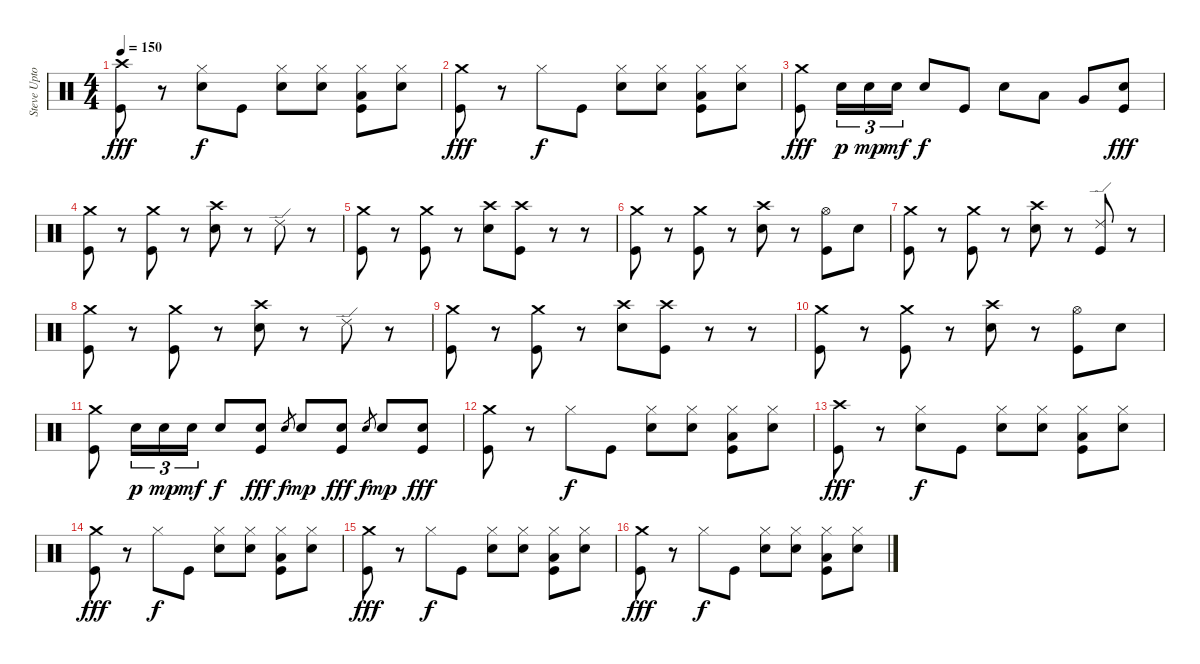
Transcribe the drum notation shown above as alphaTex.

\track ("Steve Upton (drums)" "Steve Upto") {instrument percussion}
\staff {score}
\articulation defaults
\ts (4 4)
\tempo 150
\clef neutral
\ks c
("Crash high (hit)" "Kick (hit)").8{dy fff} r.8 ("Hi-Hat (closed)" "Electric Snare (hit)").8{dy f} "Kick (hit)".8 ("Hi-Hat (closed)" "Electric Snare (hit)").8 ("Hi-Hat (closed)" "Electric Snare (hit)").8 ("Hi-Hat (closed)" "Low Tom (hit)" "Kick (hit)").8 ("Hi-Hat (closed)" "Electric Snare (hit)").8 |
("Crash medium (hit)" "Kick (hit)").8{dy fff} r.8 "Hi-Hat (closed)".8{dy f} "Kick (hit)".8 ("Hi-Hat (closed)" "Electric Snare (hit)").8 ("Hi-Hat (closed)" "Electric Snare (hit)").8 ("Hi-Hat (closed)" "Low Tom (hit)" "Kick (hit)").8 ("Hi-Hat (closed)" "Electric Snare (hit)").8 |
("Crash medium (hit)" "Kick (hit)").8{dy fff} "Electric Snare (hit)".16{tu (3 2) dy p} "Electric Snare (hit)".16{tu (3 2) dy mp} "Electric Snare (hit)".16{tu (3 2) dy mf} "Electric Snare (hit)".8{dy f} "Kick (hit)".8 "Electric Snare (hit)".8 "Low Tom (hit)".8 "Very Low Tom (hit)".8 ("Electric Snare (hit)" "Kick (hit)").8{dy fff} |
("Crash medium (hit)" "Kick (hit)").8 r.8 ("Crash medium (hit)" "Kick (hit)").8 r.8 ("Crash high (hit)" "Electric Snare (hit)").8 r.8 "Ride (edge) 2".8 r.8 |
("Crash medium (hit)" "Kick (hit)").8 r.8 ("Crash medium (hit)" "Kick (hit)").8 r.8 ("Crash high (hit)" "Electric Snare (hit)").8 ("Crash high (hit)" "Kick (hit)").8 r.8 r.8 |
("Crash medium (hit)" "Kick (hit)").8 r.8 ("Crash medium (hit)" "Kick (hit)").8 r.8 ("Crash high (hit)" "Electric Snare (hit)").8 r.8 ("Hi-Hat (open)" "Kick (hit)").8 "Electric Snare (hit)".8 |
("Crash medium (hit)" "Kick (hit)").8 r.8 ("Crash medium (hit)" "Kick (hit)").8 r.8 ("Crash high (hit)" "Electric Snare (hit)").8 r.8 ("Ride (edge) 2" "Kick (hit)").8 r.8 |
("Crash medium (hit)" "Kick (hit)").8 r.8 ("Crash medium (hit)" "Kick (hit)").8 r.8 ("Crash high (hit)" "Electric Snare (hit)").8 r.8 "Ride (edge) 2".8 r.8 |
("Crash medium (hit)" "Kick (hit)").8 r.8 ("Crash medium (hit)" "Kick (hit)").8 r.8 ("Crash high (hit)" "Electric Snare (hit)").8 ("Crash high (hit)" "Kick (hit)").8 r.8 r.8 |
("Crash medium (hit)" "Kick (hit)").8 r.8 ("Crash medium (hit)" "Kick (hit)").8 r.8 ("Crash high (hit)" "Electric Snare (hit)").8 r.8 ("Hi-Hat (open)" "Kick (hit)").8 "Electric Snare (hit)".8 |
("Crash medium (hit)" "Kick (hit)").8 "Electric Snare (hit)".16{tu (3 2) dy p} "Electric Snare (hit)".16{tu (3 2) dy mp} "Electric Snare (hit)".16{tu (3 2) dy mf} "Electric Snare (hit)".8{dy f} ("Electric Snare (hit)" "Kick (hit)").8{dy fff} "Electric Snare (hit)".8{gr dy f} "Electric Snare (hit)".8{dy mp} ("Electric Snare (hit)" "Kick (hit)").8{dy fff} "Electric Snare (hit)".8{gr dy f} "Electric Snare (hit)".8{dy mp} ("Electric Snare (hit)" "Kick (hit)").8{dy fff} |
("Crash medium (hit)" "Kick (hit)").8 r.8 "Hi-Hat (closed)".8{dy f} "Kick (hit)".8 ("Hi-Hat (closed)" "Electric Snare (hit)").8 ("Hi-Hat (closed)" "Electric Snare (hit)").8 ("Hi-Hat (closed)" "Low Tom (hit)" "Kick (hit)").8 ("Hi-Hat (closed)" "Electric Snare (hit)").8 |
("Crash high (hit)" "Kick (hit)").8{dy fff} r.8 ("Hi-Hat (closed)" "Electric Snare (hit)").8{dy f} "Kick (hit)".8 ("Hi-Hat (closed)" "Electric Snare (hit)").8 ("Hi-Hat (closed)" "Electric Snare (hit)").8 ("Hi-Hat (closed)" "Low Tom (hit)" "Kick (hit)").8 ("Hi-Hat (closed)" "Electric Snare (hit)").8 |
("Crash medium (hit)" "Kick (hit)").8{dy fff} r.8 "Hi-Hat (closed)".8{dy f} "Kick (hit)".8 ("Hi-Hat (closed)" "Electric Snare (hit)").8 ("Hi-Hat (closed)" "Electric Snare (hit)").8 ("Hi-Hat (closed)" "Low Tom (hit)" "Kick (hit)").8 ("Hi-Hat (closed)" "Electric Snare (hit)").8 |
("Crash medium (hit)" "Kick (hit)").8{dy fff} r.8 "Hi-Hat (closed)".8{dy f} "Kick (hit)".8 ("Hi-Hat (closed)" "Electric Snare (hit)").8 ("Hi-Hat (closed)" "Electric Snare (hit)").8 ("Hi-Hat (closed)" "Low Tom (hit)" "Kick (hit)").8 ("Hi-Hat (closed)" "Electric Snare (hit)").8 |
("Crash medium (hit)" "Kick (hit)").8{dy fff} r.8 "Hi-Hat (closed)".8{dy f} "Kick (hit)".8 ("Hi-Hat (closed)" "Electric Snare (hit)").8 ("Hi-Hat (closed)" "Electric Snare (hit)").8 ("Hi-Hat (closed)" "Low Tom (hit)" "Kick (hit)").8 ("Hi-Hat (closed)" "Electric Snare (hit)").8
